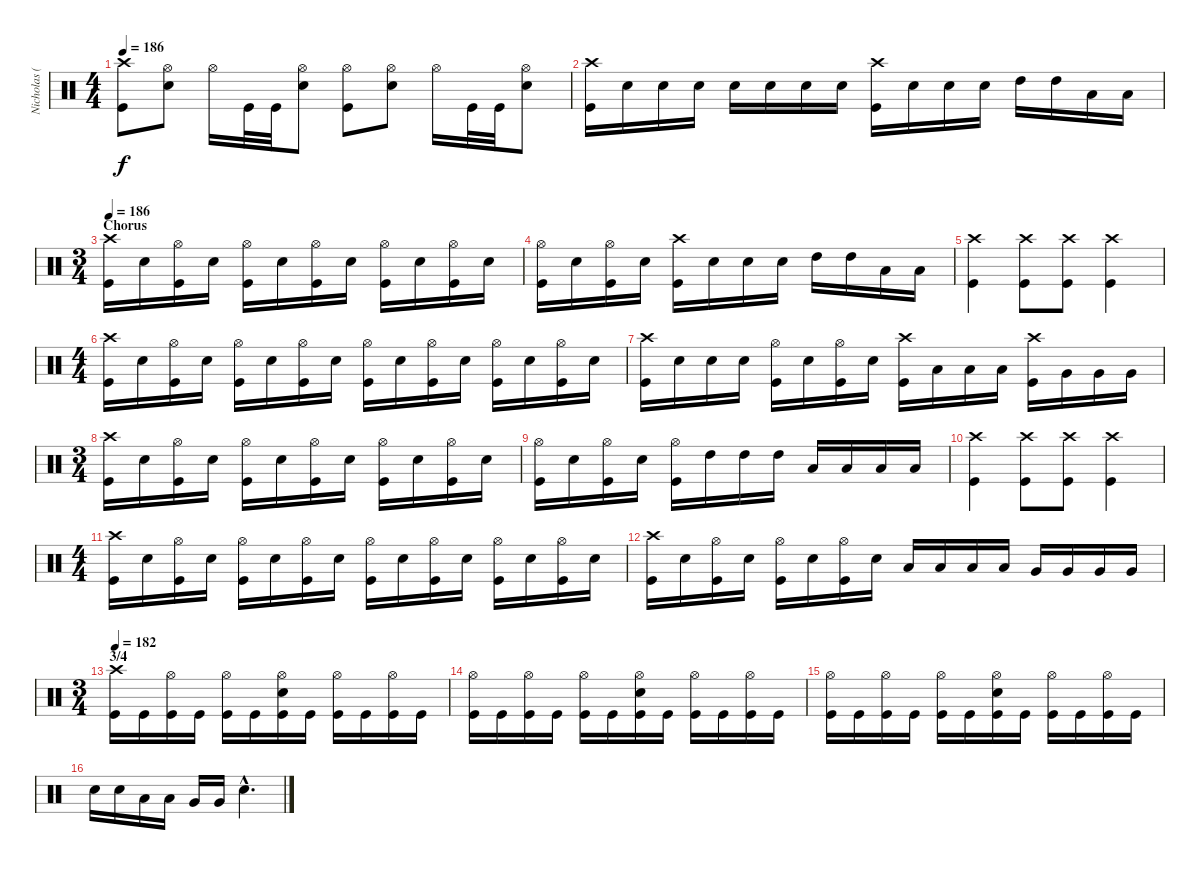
\track ("Nicholas (Drums)" "Nicholas (") {instrument percussion}
\staff {score}
\articulation defaults
\ts (4 4)
\tempo 186
\clef neutral
\ks c
("Crash high (hit)" "Kick (hit)").8{dy f} ("Hi-Hat (open)" "Electric Snare (hit)").8 "Hi-Hat (open)".16 "Kick (hit)".32 "Kick (hit)".32 ("Hi-Hat (open)" "Electric Snare (hit)").8 ("Hi-Hat (open)" "Kick (hit)").8 ("Hi-Hat (open)" "Electric Snare (hit)").8 "Hi-Hat (open)".16 "Kick (hit)".32 "Kick (hit)".32 ("Hi-Hat (open)" "Electric Snare (hit)").8 |
("Crash high (hit)" "Kick (hit)").16 "Electric Snare (hit)".16 "Electric Snare (hit)".16 "Electric Snare (hit)".16 "Electric Snare (hit)".16 "Electric Snare (hit)".16 "Electric Snare (hit)".16 "Electric Snare (hit)".16 ("Crash high (hit)" "Kick (hit)").16 "Electric Snare (hit)".16 "Electric Snare (hit)".16 "Electric Snare (hit)".16 "High Tom (hit)".16 "High Tom (hit)".16 "Low Tom (hit)".16 "Low Tom (hit)".16 |
\ts (3 4)
\section ("" "Chorus")
\tempo 186
("Crash high (hit)" "Kick (hit)").16 "Electric Snare (hit)".16 ("Hi-Hat (open)" "Kick (hit)").16 "Electric Snare (hit)".16 ("Hi-Hat (open)" "Kick (hit)").16 "Electric Snare (hit)".16 ("Hi-Hat (open)" "Kick (hit)").16 "Electric Snare (hit)".16 ("Hi-Hat (open)" "Kick (hit)").16 "Electric Snare (hit)".16 ("Hi-Hat (open)" "Kick (hit)").16 "Electric Snare (hit)".16 |
("Hi-Hat (open)" "Kick (hit)").16 "Electric Snare (hit)".16 ("Hi-Hat (open)" "Kick (hit)").16 "Electric Snare (hit)".16 ("Crash high (hit)" "Kick (hit)").16 "Electric Snare (hit)".16 "Electric Snare (hit)".16 "Electric Snare (hit)".16 "High Tom (hit)".16 "High Tom (hit)".16 "Low Tom (hit)".16 "Low Tom (hit)".16 |
("Crash high (hit)" "Kick (hit)").4 ("Crash high (hit)" "Kick (hit)").8 ("Crash high (hit)" "Kick (hit)").8 ("Crash high (hit)" "Kick (hit)").4 |
\ts (4 4)
("Crash high (hit)" "Kick (hit)").16 "Electric Snare (hit)".16 ("Hi-Hat (open)" "Kick (hit)").16 "Electric Snare (hit)".16 ("Hi-Hat (open)" "Kick (hit)").16 "Electric Snare (hit)".16 ("Hi-Hat (open)" "Kick (hit)").16 "Electric Snare (hit)".16 ("Hi-Hat (open)" "Kick (hit)").16 "Electric Snare (hit)".16 ("Hi-Hat (open)" "Kick (hit)").16 "Electric Snare (hit)".16 ("Hi-Hat (open)" "Kick (hit)").16 "Electric Snare (hit)".16 ("Hi-Hat (open)" "Kick (hit)").16 "Electric Snare (hit)".16 |
("Crash high (hit)" "Kick (hit)").16 "Electric Snare (hit)".16 "Electric Snare (hit)".16 "Electric Snare (hit)".16 ("Hi-Hat (open)" "Kick (hit)").16 "Electric Snare (hit)".16 ("Hi-Hat (open)" "Kick (hit)").16 "Electric Snare (hit)".16 ("Crash high (hit)" "Kick (hit)").16 "Low Tom (hit)".16 "Low Tom (hit)".16 "Low Tom (hit)".16 ("Crash high (hit)" "Kick (hit)").16 "Very Low Tom (hit)".16 "Very Low Tom (hit)".16 "Very Low Tom (hit)".16 |
\ts (3 4)
("Crash high (hit)" "Kick (hit)").16 "Electric Snare (hit)".16 ("Hi-Hat (open)" "Kick (hit)").16 "Electric Snare (hit)".16 ("Hi-Hat (open)" "Kick (hit)").16 "Electric Snare (hit)".16 ("Hi-Hat (open)" "Kick (hit)").16 "Electric Snare (hit)".16 ("Hi-Hat (open)" "Kick (hit)").16 "Electric Snare (hit)".16 ("Hi-Hat (open)" "Kick (hit)").16 "Electric Snare (hit)".16 |
("Hi-Hat (open)" "Kick (hit)").16 "Electric Snare (hit)".16 ("Hi-Hat (open)" "Kick (hit)").16 "Electric Snare (hit)".16 ("Hi-Hat (open)" "Kick (hit)").16 "High Tom (hit)".16 "High Tom (hit)".16 "High Tom (hit)".16 "Low Tom (hit)".16 "Low Tom (hit)".16 "Low Tom (hit)".16 "Low Tom (hit)".16 |
("Crash high (hit)" "Kick (hit)").4 ("Crash high (hit)" "Kick (hit)").8 ("Crash high (hit)" "Kick (hit)").8 ("Crash high (hit)" "Kick (hit)").4 |
\ts (4 4)
("Crash high (hit)" "Kick (hit)").16 "Electric Snare (hit)".16 ("Hi-Hat (open)" "Kick (hit)").16 "Electric Snare (hit)".16 ("Hi-Hat (open)" "Kick (hit)").16 "Electric Snare (hit)".16 ("Hi-Hat (open)" "Kick (hit)").16 "Electric Snare (hit)".16 ("Hi-Hat (open)" "Kick (hit)").16 "Electric Snare (hit)".16 ("Hi-Hat (open)" "Kick (hit)").16 "Electric Snare (hit)".16 ("Hi-Hat (open)" "Kick (hit)").16 "Electric Snare (hit)".16 ("Hi-Hat (open)" "Kick (hit)").16 "Electric Snare (hit)".16 |
("Crash high (hit)" "Kick (hit)").16 "Electric Snare (hit)".16 ("Hi-Hat (open)" "Kick (hit)").16 "Electric Snare (hit)".16 ("Hi-Hat (open)" "Kick (hit)").16 "Electric Snare (hit)".16 ("Hi-Hat (open)" "Kick (hit)").16 "Electric Snare (hit)".16 "Low Tom (hit)".16 "Low Tom (hit)".16 "Low Tom (hit)".16 "Low Tom (hit)".16 "Very Low Tom (hit)".16 "Very Low Tom (hit)".16 "Very Low Tom (hit)".16 "Very Low Tom (hit)".16 |
\ts (3 4)
\section ("" "3/4")
\tempo 182
("Crash high (hit)" "Kick (hit)").16 "Kick (hit)".16 ("Hi-Hat (open)" "Kick (hit)").16 "Kick (hit)".16 ("Hi-Hat (open)" "Kick (hit)").16 "Kick (hit)".16 ("Hi-Hat (open)" "Electric Snare (hit)" "Kick (hit)").16 "Kick (hit)".16 ("Hi-Hat (open)" "Kick (hit)").16 "Kick (hit)".16 ("Hi-Hat (open)" "Kick (hit)").16 "Kick (hit)".16 |
("Hi-Hat (open)" "Kick (hit)").16 "Kick (hit)".16 ("Hi-Hat (open)" "Kick (hit)").16 "Kick (hit)".16 ("Hi-Hat (open)" "Kick (hit)").16 "Kick (hit)".16 ("Hi-Hat (open)" "Electric Snare (hit)" "Kick (hit)").16 "Kick (hit)".16 ("Hi-Hat (open)" "Kick (hit)").16 "Kick (hit)".16 ("Hi-Hat (open)" "Kick (hit)").16 "Kick (hit)".16 |
("Hi-Hat (open)" "Kick (hit)").16 "Kick (hit)".16 ("Hi-Hat (open)" "Kick (hit)").16 "Kick (hit)".16 ("Hi-Hat (open)" "Kick (hit)").16 "Kick (hit)".16 ("Hi-Hat (open)" "Electric Snare (hit)" "Kick (hit)").16 "Kick (hit)".16 ("Hi-Hat (open)" "Kick (hit)").16 "Kick (hit)".16 ("Hi-Hat (open)" "Kick (hit)").16 "Kick (hit)".16 |
"Electric Snare (hit)".16 "Electric Snare (hit)".16 "Low Tom (hit)".16 "Low Tom (hit)".16 "Very Low Tom (hit)".16 "Very Low Tom (hit)".16 "Electric Snare (hit)"{hac}.4{d}
